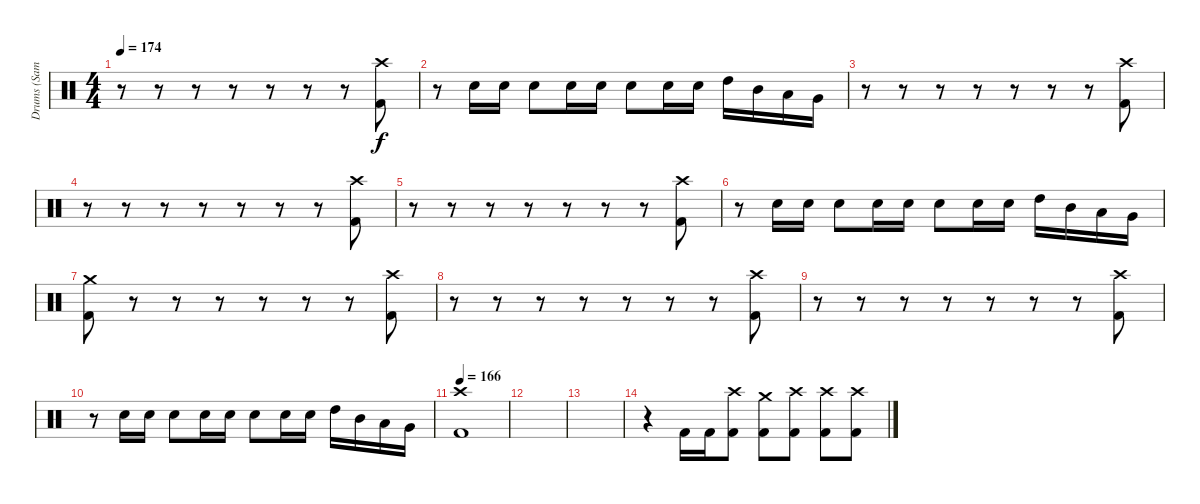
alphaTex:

\track ("Drums (Samuelson)" "Drums (Sam") {instrument percussion}
\staff
\articulation defaults
\ts (4 4)
\tempo 174
\clef neutral
\ks c
r.8{dy f} r.8 r.8 r.8 r.8 r.8 r.8 ("Crash high (hit)" "Kick (hit) 2").8 |
r.8 "Electric Snare (hit)".16 "Electric Snare (hit)".16 "Electric Snare (hit)".8 "Electric Snare (hit)".16 "Electric Snare (hit)".16 "Electric Snare (hit)".8 "Electric Snare (hit)".16 "Electric Snare (hit)".16 "High Tom (hit)".16 "Mid Tom (hit)".16 "Low Tom (hit)".16 "Very Low Tom (hit)".16 |
r.8 r.8 r.8 r.8 r.8 r.8 r.8 ("Crash high (hit)" "Kick (hit) 2").8 |
r.8 r.8 r.8 r.8 r.8 r.8 r.8 ("Crash high (hit)" "Kick (hit) 2").8 |
r.8 r.8 r.8 r.8 r.8 r.8 r.8 ("Crash high (hit)" "Kick (hit) 2").8 |
r.8 "Electric Snare (hit)".16 "Electric Snare (hit)".16 "Electric Snare (hit)".8 "Electric Snare (hit)".16 "Electric Snare (hit)".16 "Electric Snare (hit)".8 "Electric Snare (hit)".16 "Electric Snare (hit)".16 "High Tom (hit)".16 "Mid Tom (hit)".16 "Low Tom (hit)".16 "Very Low Tom (hit)".16 |
("Crash medium (hit)" "Kick (hit) 2").8 r.8 r.8 r.8 r.8 r.8 r.8 ("Crash high (hit)" "Kick (hit) 2").8 |
r.8 r.8 r.8 r.8 r.8 r.8 r.8 ("Crash high (hit)" "Kick (hit) 2").8 |
r.8 r.8 r.8 r.8 r.8 r.8 r.8 ("Crash high (hit)" "Kick (hit) 2").8 |
r.8 "Electric Snare (hit)".16 "Electric Snare (hit)".16 "Electric Snare (hit)".8 "Electric Snare (hit)".16 "Electric Snare (hit)".16 "Electric Snare (hit)".8 "Electric Snare (hit)".16 "Electric Snare (hit)".16 "High Tom (hit)".16 "Mid Tom (hit)".16 "Low Tom (hit)".16 "Very Low Tom (hit)".16 |
\tempo 166
("Crash high (hit)" "Kick (hit) 2").1 |
|
|
r.4 "Kick (hit) 2".16 "Kick (hit) 2".16 ("Crash high (hit)" "Kick (hit) 2").8 ("Crash medium (hit)" "Kick (hit) 2").8 ("Crash high (hit)" "Kick (hit) 2").8 ("Crash high (hit)" "Kick (hit) 2").8 ("Crash high (hit)" "Kick (hit) 2").8
